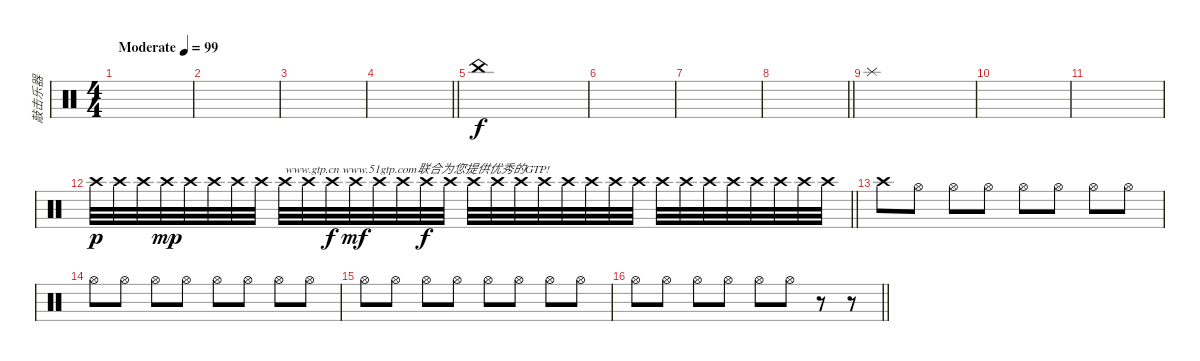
\track ("敲击乐器" "敲击乐器") {instrument percussion}
\staff {score}
\articulation defaults
\ts (4 4)
\tempo (99 "Moderate")
\clef neutral
\ks c
|
|
|
\barLineRight lightlight
|
"China (hit)".1 |
|
|
\barLineRight lightlight
|
"Splash (hit)".1 |
|
|
\barLineRight lightlight "Crash high (hit)".32{dy p volume 16} "Crash high (hit)".32 "Crash high (hit)".32 "Crash high (hit)".32{dy mp} "Crash high (hit)".32 "Crash high (hit)".32 "Crash high (hit)".32 "Crash high (hit)".32 "Crash high (hit)".32{txt "www.gtp.cn www.51gtp.com联合为您提供优秀的GTP!"} "Crash high (hit)".32 "Crash high (hit)".32{dy f} "Crash high (hit)".32{dy mf} "Crash high (hit)".32 "Crash high (hit)".32 "Crash high (hit)".32{dy f} "Crash high (hit)".32 "Crash high (hit)".32 "Crash high (hit)".32 "Crash high (hit)".32 "Crash high (hit)".32 "Crash high (hit)".32 "Crash high (hit)".32 "Crash high (hit)".32 "Crash high (hit)".32 "Crash high (hit)".32 "Crash high (hit)".32 "Crash high (hit)".32 "Crash high (hit)".32 "Crash high (hit)".32 "Crash high (hit)".32 "Crash high (hit)".32 "Crash high (hit)".32
|
"Crash high (hit)".8 "Hi-Hat (open)".8 "Hi-Hat (open)".8 "Hi-Hat (open)".8 "Hi-Hat (open)".8 "Hi-Hat (open)".8 "Hi-Hat (open)".8 "Hi-Hat (open)".8 |
"Hi-Hat (open)".8 "Hi-Hat (open)".8 "Hi-Hat (open)".8 "Hi-Hat (open)".8 "Hi-Hat (open)".8 "Hi-Hat (open)".8 "Hi-Hat (open)".8 "Hi-Hat (open)".8 |
"Hi-Hat (open)".8 "Hi-Hat (open)".8 "Hi-Hat (open)".8 "Hi-Hat (open)".8 "Hi-Hat (open)".8 "Hi-Hat (open)".8 "Hi-Hat (open)".8 "Hi-Hat (open)".8 |
\barLineRight lightlight "Hi-Hat (open)".8 "Hi-Hat (open)".8 "Hi-Hat (open)".8 "Hi-Hat (open)".8 "Hi-Hat (open)".8 "Hi-Hat (open)".8
r.8 r.8
